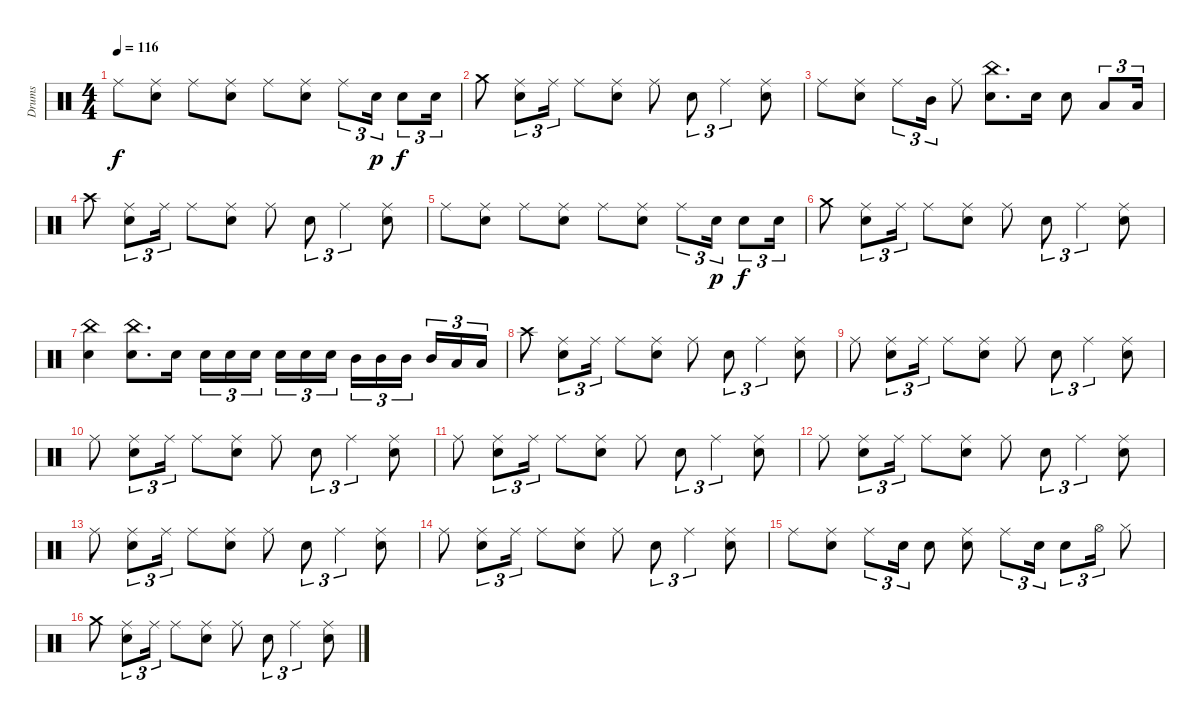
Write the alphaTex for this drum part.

\track ("Drums" "Drums") {instrument percussion}
\staff {score}
\articulation defaults
\ts (4 4)
\tempo 116
\clef neutral
\ks c "Ride (middle)".8{dy f}
("Ride (middle)" "Snare (hit) 2").8 "Ride (middle)".8 ("Ride (middle)" "Snare (hit) 2").8 "Ride (middle)".8 ("Ride (middle)" "Snare (hit) 2").8 "Ride (middle)".8{tu (3 2)} "Snare (hit) 2".16{tu (3 2) dy p} "Snare (hit) 2".8{tu (3 2) dy f} "Snare (hit) 2".16{tu (3 2)} |
"Crash medium (hit)".8 ("Ride (middle)" "Snare (hit) 2").8{tu (3 2)} "Ride (middle)".16{tu (3 2)} "Ride (middle)".8 ("Ride (middle)" "Snare (hit) 2").8 "Ride (middle)".8 "Snare (hit) 2".8{tu (3 2)} "Ride (middle)".4{tu (3 2)} ("Ride (middle)" "Snare (hit) 2").8 |
"Ride (middle)".8 ("Ride (middle)" "Snare (hit) 2").8 "Ride (middle)".8{tu (3 2)} "Mid Tom (hit)".16{tu (3 2)} "Ride (middle)".8 ("China (hit)" "Snare (hit) 2").8{d} "Snare (hit) 2".16 "Snare (hit) 2".8 "Low Tom (hit)".8{tu (3 2)} "Low Tom (hit)".16{tu (3 2)} |
"Crash high (hit)".8 ("Ride (middle)" "Snare (hit) 2").8{tu (3 2)} "Ride (middle)".16{tu (3 2)} "Ride (middle)".8 ("Ride (middle)" "Snare (hit) 2").8 "Ride (middle)".8 "Snare (hit) 2".8{tu (3 2)} "Ride (middle)".4{tu (3 2)} ("Ride (middle)" "Snare (hit) 2").8 |
"Ride (middle)".8 ("Ride (middle)" "Snare (hit) 2").8 "Ride (middle)".8 ("Ride (middle)" "Snare (hit) 2").8 "Ride (middle)".8 ("Ride (middle)" "Snare (hit) 2").8 "Ride (middle)".8{tu (3 2)} "Snare (hit) 2".16{tu (3 2) dy p} "Snare (hit) 2".8{tu (3 2) dy f} "Snare (hit) 2".16{tu (3 2)} |
"Crash medium (hit)".8 ("Ride (middle)" "Snare (hit) 2").8{tu (3 2)} "Ride (middle)".16{tu (3 2)} "Ride (middle)".8 ("Ride (middle)" "Snare (hit) 2").8 "Ride (middle)".8 "Snare (hit) 2".8{tu (3 2)} "Ride (middle)".4{tu (3 2)} ("Ride (middle)" "Snare (hit) 2").8 |
("China (hit)" "Snare (hit) 2").4 ("China (hit)" "Snare (hit) 2").8{d} "Snare (hit) 2".16 "Snare (hit) 2".16{tu (3 2)} "Snare (hit) 2".16{tu (3 2)} "Snare (hit) 2".16{tu (3 2)} "Snare (hit) 2".16{tu (3 2)} "Snare (hit) 2".16{tu (3 2)} "Snare (hit) 2".16{tu (3 2)} "Mid Tom (hit)".16{tu (3 2)} "Mid Tom (hit)".16{tu (3 2)} "Mid Tom (hit)".16{tu (3 2)} "Mid Tom (hit)".16{tu (3 2)} "Low Tom (hit)".16{tu (3 2)} "Low Tom (hit)".16{tu (3 2)} |
"Crash high (hit)".8 ("Ride (middle)" "Snare (hit) 2").8{tu (3 2)} "Ride (middle)".16{tu (3 2)} "Ride (middle)".8 ("Ride (middle)" "Snare (hit) 2").8 "Ride (middle)".8 "Snare (hit) 2".8{tu (3 2)} "Ride (middle)".4{tu (3 2)} ("Ride (middle)" "Snare (hit) 2").8 |
"Ride (middle)".8 ("Ride (middle)" "Snare (hit) 2").8{tu (3 2)} "Ride (middle)".16{tu (3 2)} "Ride (middle)".8 ("Ride (middle)" "Snare (hit) 2").8 "Ride (middle)".8 "Snare (hit) 2".8{tu (3 2)} "Ride (middle)".4{tu (3 2)} ("Ride (middle)" "Snare (hit) 2").8 |
"Ride (middle)".8 ("Ride (middle)" "Snare (hit) 2").8{tu (3 2)} "Ride (middle)".16{tu (3 2)} "Ride (middle)".8 ("Ride (middle)" "Snare (hit) 2").8 "Ride (middle)".8 "Snare (hit) 2".8{tu (3 2)} "Ride (middle)".4{tu (3 2)} ("Ride (middle)" "Snare (hit) 2").8 |
"Ride (middle)".8 ("Ride (middle)" "Snare (hit) 2").8{tu (3 2)} "Ride (middle)".16{tu (3 2)} "Ride (middle)".8 ("Ride (middle)" "Snare (hit) 2").8 "Ride (middle)".8 "Snare (hit) 2".8{tu (3 2)} "Ride (middle)".4{tu (3 2)} ("Ride (middle)" "Snare (hit) 2").8 |
"Ride (middle)".8 ("Ride (middle)" "Snare (hit) 2").8{tu (3 2)} "Ride (middle)".16{tu (3 2)} "Ride (middle)".8 ("Ride (middle)" "Snare (hit) 2").8 "Ride (middle)".8 "Snare (hit) 2".8{tu (3 2)} "Ride (middle)".4{tu (3 2)} ("Ride (middle)" "Snare (hit) 2").8 |
"Ride (middle)".8 ("Ride (middle)" "Snare (hit) 2").8{tu (3 2)} "Ride (middle)".16{tu (3 2)} "Ride (middle)".8 ("Ride (middle)" "Snare (hit) 2").8 "Ride (middle)".8 "Snare (hit) 2".8{tu (3 2)} "Ride (middle)".4{tu (3 2)} ("Ride (middle)" "Snare (hit) 2").8 |
"Ride (middle)".8 ("Ride (middle)" "Snare (hit) 2").8{tu (3 2)} "Ride (middle)".16{tu (3 2)} "Ride (middle)".8 ("Ride (middle)" "Snare (hit) 2").8 "Ride (middle)".8 "Snare (hit) 2".8{tu (3 2)} "Ride (middle)".4{tu (3 2)} ("Ride (middle)" "Snare (hit) 2").8 |
"Ride (middle)".8 ("Ride (middle)" "Snare (hit) 2").8 "Ride (middle)".8{tu (3 2)} "Snare (hit) 2".16{tu (3 2)} "Snare (hit) 2".8 ("Ride (middle)" "Snare (hit) 2").8 "Ride (middle)".8{tu (3 2)} "Snare (hit) 2".16{tu (3 2)} "Snare (hit) 2".8{tu (3 2)} "Hi-Hat (open)".16{tu (3 2)} "Hi-Hat (closed)".8 |
"Crash medium (hit)".8 ("Ride (middle)" "Snare (hit) 2").8{tu (3 2)} "Ride (middle)".16{tu (3 2)} "Ride (middle)".8 ("Ride (middle)" "Snare (hit) 2").8 "Ride (middle)".8 "Snare (hit) 2".8{tu (3 2)} "Ride (middle)".4{tu (3 2)} ("Ride (middle)" "Snare (hit) 2").8
